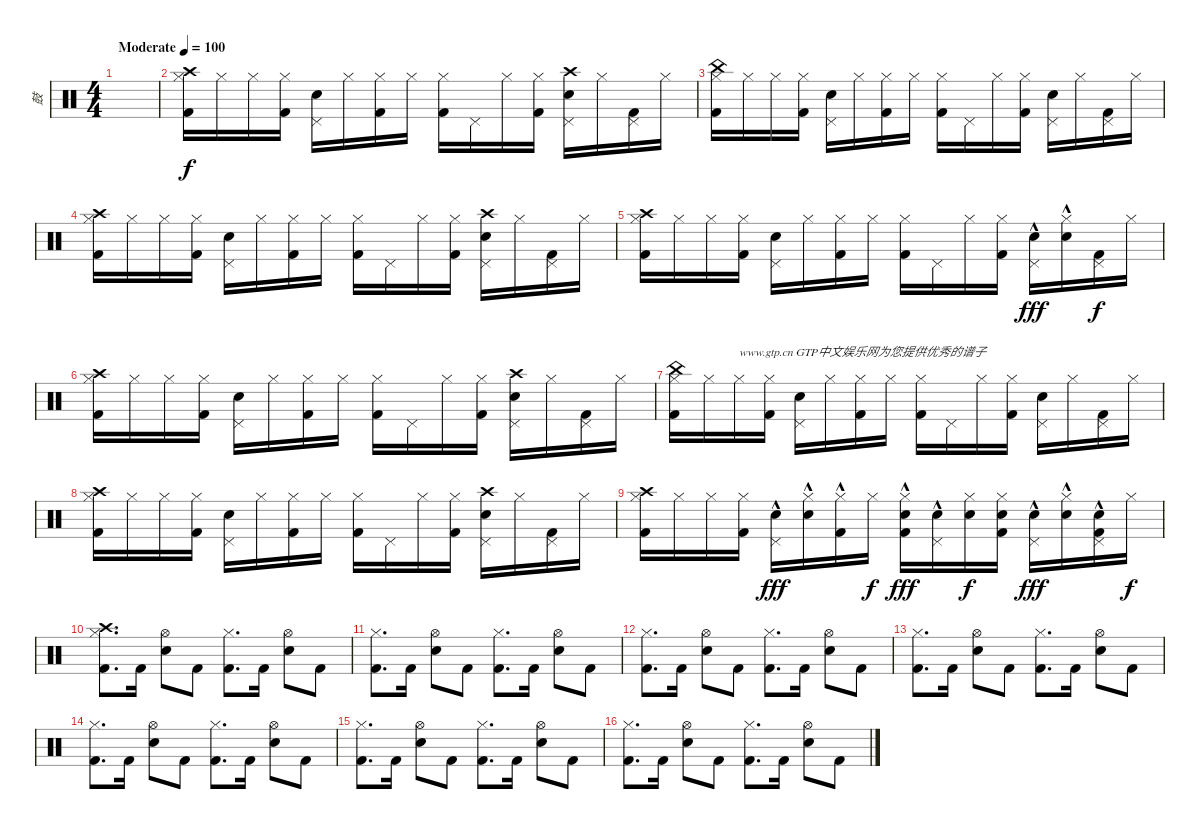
\track ("鼓" "鼓") {instrument percussion}
\staff {score}
\articulation defaults
\ts (4 4)
\tempo (100 "Moderate")
\clef neutral
\ks c
|
("Crash high (hit)" "Hi-Hat (closed)" "Kick (hit) 2").16 "Hi-Hat (closed)".16 "Hi-Hat (closed)".16 ("Hi-Hat (closed)" "Kick (hit) 2").16 ("Pedal Hi-Hat (hit)" "Electric Snare (hit)").16 "Hi-Hat (closed)".16 ("Hi-Hat (closed)" "Kick (hit) 2").16 "Hi-Hat (closed)".16 ("Hi-Hat (closed)" "Kick (hit) 2").16 "Pedal Hi-Hat (hit)".16 "Hi-Hat (closed)".16 ("Hi-Hat (closed)" "Kick (hit) 2").16 ("Crash high (hit)" "Pedal Hi-Hat (hit)" "Electric Snare (hit)").16 "Hi-Hat (closed)".16 ("Pedal Hi-Hat (hit)" "Kick (hit) 2").16 "Hi-Hat (closed)".16 |
("China (hit)" "Hi-Hat (closed)" "Kick (hit) 2").16 "Hi-Hat (closed)".16 "Hi-Hat (closed)".16 ("Hi-Hat (closed)" "Kick (hit) 2").16 ("Pedal Hi-Hat (hit)" "Electric Snare (hit)").16 "Hi-Hat (closed)".16 ("Hi-Hat (closed)" "Kick (hit) 2").16 "Hi-Hat (closed)".16 ("Hi-Hat (closed)" "Kick (hit) 2").16 "Pedal Hi-Hat (hit)".16 "Hi-Hat (closed)".16 ("Hi-Hat (closed)" "Kick (hit) 2").16 ("Pedal Hi-Hat (hit)" "Electric Snare (hit)").16 "Hi-Hat (closed)".16 ("Pedal Hi-Hat (hit)" "Kick (hit) 2").16 "Hi-Hat (closed)".16 |
("Crash high (hit)" "Hi-Hat (closed)" "Kick (hit) 2").16 "Hi-Hat (closed)".16 "Hi-Hat (closed)".16 ("Hi-Hat (closed)" "Kick (hit) 2").16 ("Pedal Hi-Hat (hit)" "Electric Snare (hit)").16 "Hi-Hat (closed)".16 ("Hi-Hat (closed)" "Kick (hit) 2").16 "Hi-Hat (closed)".16 ("Hi-Hat (closed)" "Kick (hit) 2").16 "Pedal Hi-Hat (hit)".16 "Hi-Hat (closed)".16 ("Hi-Hat (closed)" "Kick (hit) 2").16 ("Crash high (hit)" "Pedal Hi-Hat (hit)" "Electric Snare (hit)").16 "Hi-Hat (closed)".16 ("Pedal Hi-Hat (hit)" "Kick (hit) 2").16 "Hi-Hat (closed)".16 |
("Crash high (hit)" "Hi-Hat (closed)" "Kick (hit) 2").16 "Hi-Hat (closed)".16 "Hi-Hat (closed)".16 ("Hi-Hat (closed)" "Kick (hit) 2").16 ("Pedal Hi-Hat (hit)" "Electric Snare (hit)").16 "Hi-Hat (closed)".16 ("Hi-Hat (closed)" "Kick (hit) 2").16 "Hi-Hat (closed)".16 ("Hi-Hat (closed)" "Kick (hit) 2").16 "Pedal Hi-Hat (hit)".16 "Hi-Hat (closed)".16 ("Hi-Hat (closed)" "Kick (hit) 2").16 ("Pedal Hi-Hat (hit)" "Electric Snare (hit)"{hac}).16{dy fff} ("Hi-Hat (closed)" "Electric Snare (hit)"{hac}).16 ("Pedal Hi-Hat (hit)" "Kick (hit) 2").16{dy f} "Hi-Hat (closed)".16 |
("Crash high (hit)" "Hi-Hat (closed)" "Kick (hit) 2").16 "Hi-Hat (closed)".16 "Hi-Hat (closed)".16 ("Hi-Hat (closed)" "Kick (hit) 2").16 ("Pedal Hi-Hat (hit)" "Electric Snare (hit)").16 "Hi-Hat (closed)".16 ("Hi-Hat (closed)" "Kick (hit) 2").16 "Hi-Hat (closed)".16 ("Hi-Hat (closed)" "Kick (hit) 2").16 "Pedal Hi-Hat (hit)".16 "Hi-Hat (closed)".16 ("Hi-Hat (closed)" "Kick (hit) 2").16 ("Crash high (hit)" "Pedal Hi-Hat (hit)" "Electric Snare (hit)").16 "Hi-Hat (closed)".16 ("Pedal Hi-Hat (hit)" "Kick (hit) 2").16 "Hi-Hat (closed)".16 |
("China (hit)" "Hi-Hat (closed)" "Kick (hit) 2").16 "Hi-Hat (closed)".16 "Hi-Hat (closed)".16{txt "www.gtp.cn GTP中文娱乐网为您提供优秀的谱子"} ("Hi-Hat (closed)" "Kick (hit) 2").16 ("Pedal Hi-Hat (hit)" "Electric Snare (hit)").16 "Hi-Hat (closed)".16 ("Hi-Hat (closed)" "Kick (hit) 2").16 "Hi-Hat (closed)".16 ("Hi-Hat (closed)" "Kick (hit) 2").16 "Pedal Hi-Hat (hit)".16 "Hi-Hat (closed)".16 ("Hi-Hat (closed)" "Kick (hit) 2").16 ("Pedal Hi-Hat (hit)" "Electric Snare (hit)").16 "Hi-Hat (closed)".16 ("Pedal Hi-Hat (hit)" "Kick (hit) 2").16 "Hi-Hat (closed)".16 |
("Crash high (hit)" "Hi-Hat (closed)" "Kick (hit) 2").16 "Hi-Hat (closed)".16 "Hi-Hat (closed)".16 ("Hi-Hat (closed)" "Kick (hit) 2").16 ("Pedal Hi-Hat (hit)" "Electric Snare (hit)").16 "Hi-Hat (closed)".16 ("Hi-Hat (closed)" "Kick (hit) 2").16 "Hi-Hat (closed)".16 ("Hi-Hat (closed)" "Kick (hit) 2").16 "Pedal Hi-Hat (hit)".16 "Hi-Hat (closed)".16 ("Hi-Hat (closed)" "Kick (hit) 2").16 ("Crash high (hit)" "Pedal Hi-Hat (hit)" "Electric Snare (hit)").16 "Hi-Hat (closed)".16 ("Pedal Hi-Hat (hit)" "Kick (hit) 2").16 "Hi-Hat (closed)".16 |
("Crash high (hit)" "Hi-Hat (closed)" "Kick (hit) 2").16 "Hi-Hat (closed)".16 "Hi-Hat (closed)".16 ("Hi-Hat (closed)" "Kick (hit) 2").16 ("Pedal Hi-Hat (hit)" "Electric Snare (hit)"{hac}).16{dy fff} ("Hi-Hat (closed)" "Electric Snare (hit)"{hac}).16 ("Hi-Hat (closed)" "Kick (hit) 2"{hac}).16 "Hi-Hat (closed)".16{dy f} ("Hi-Hat (closed)" "Electric Snare (hit)"{hac} "Kick (hit) 2").16{dy fff} ("Pedal Hi-Hat (hit)" "Electric Snare (hit)"{hac}).16 ("Hi-Hat (closed)" "Snare (hit) 2").16{dy f} ("Hi-Hat (closed)" "Electric Snare (hit)" "Kick (hit) 2").16 ("Pedal Hi-Hat (hit)" "Electric Snare (hit)"{hac}).16{dy fff} ("Hi-Hat (closed)" "Snare (hit) 2"{hac}).16 ("Pedal Hi-Hat (hit)" "Snare (hit) 2"{hac} "Kick (hit) 2").16 "Hi-Hat (closed)".16{dy f} |
("Crash high (hit)" "Hi-Hat (closed)" "Kick (hit) 2").8{d} "Kick (hit) 2".16 ("Hi-Hat (open)" "Electric Snare (hit)").8 "Kick (hit) 2".8 ("Hi-Hat (closed)" "Kick (hit) 2").8{d} "Kick (hit) 2".16 ("Hi-Hat (open)" "Electric Snare (hit)").8 "Kick (hit) 2".8 |
("Hi-Hat (closed)" "Kick (hit) 2").8{d} "Kick (hit) 2".16 ("Hi-Hat (open)" "Electric Snare (hit)").8 "Kick (hit) 2".8 ("Hi-Hat (closed)" "Kick (hit) 2").8{d} "Kick (hit) 2".16 ("Hi-Hat (open)" "Electric Snare (hit)").8 "Kick (hit) 2".8 |
("Hi-Hat (closed)" "Kick (hit) 2").8{d} "Kick (hit) 2".16 ("Hi-Hat (open)" "Electric Snare (hit)").8 "Kick (hit) 2".8 ("Hi-Hat (closed)" "Kick (hit) 2").8{d} "Kick (hit) 2".16 ("Hi-Hat (open)" "Electric Snare (hit)").8 "Kick (hit) 2".8 |
("Hi-Hat (closed)" "Kick (hit) 2").8{d} "Kick (hit) 2".16 ("Hi-Hat (open)" "Electric Snare (hit)").8 "Kick (hit) 2".8 ("Hi-Hat (closed)" "Kick (hit) 2").8{d} "Kick (hit) 2".16 ("Hi-Hat (open)" "Electric Snare (hit)").8 "Kick (hit) 2".8 |
("Hi-Hat (closed)" "Kick (hit) 2").8{d} "Kick (hit) 2".16 ("Hi-Hat (open)" "Electric Snare (hit)").8 "Kick (hit) 2".8 ("Hi-Hat (closed)" "Kick (hit) 2").8{d} "Kick (hit) 2".16 ("Hi-Hat (open)" "Electric Snare (hit)").8 "Kick (hit) 2".8 |
("Hi-Hat (closed)" "Kick (hit) 2").8{d} "Kick (hit) 2".16 ("Hi-Hat (open)" "Electric Snare (hit)").8 "Kick (hit) 2".8 ("Hi-Hat (closed)" "Kick (hit) 2").8{d} "Kick (hit) 2".16 ("Hi-Hat (open)" "Electric Snare (hit)").8 "Kick (hit) 2".8 |
("Hi-Hat (closed)" "Kick (hit) 2").8{d} "Kick (hit) 2".16 ("Hi-Hat (open)" "Electric Snare (hit)").8 "Kick (hit) 2".8 ("Hi-Hat (closed)" "Kick (hit) 2").8{d} "Kick (hit) 2".16 ("Hi-Hat (open)" "Electric Snare (hit)").8 "Kick (hit) 2".8
